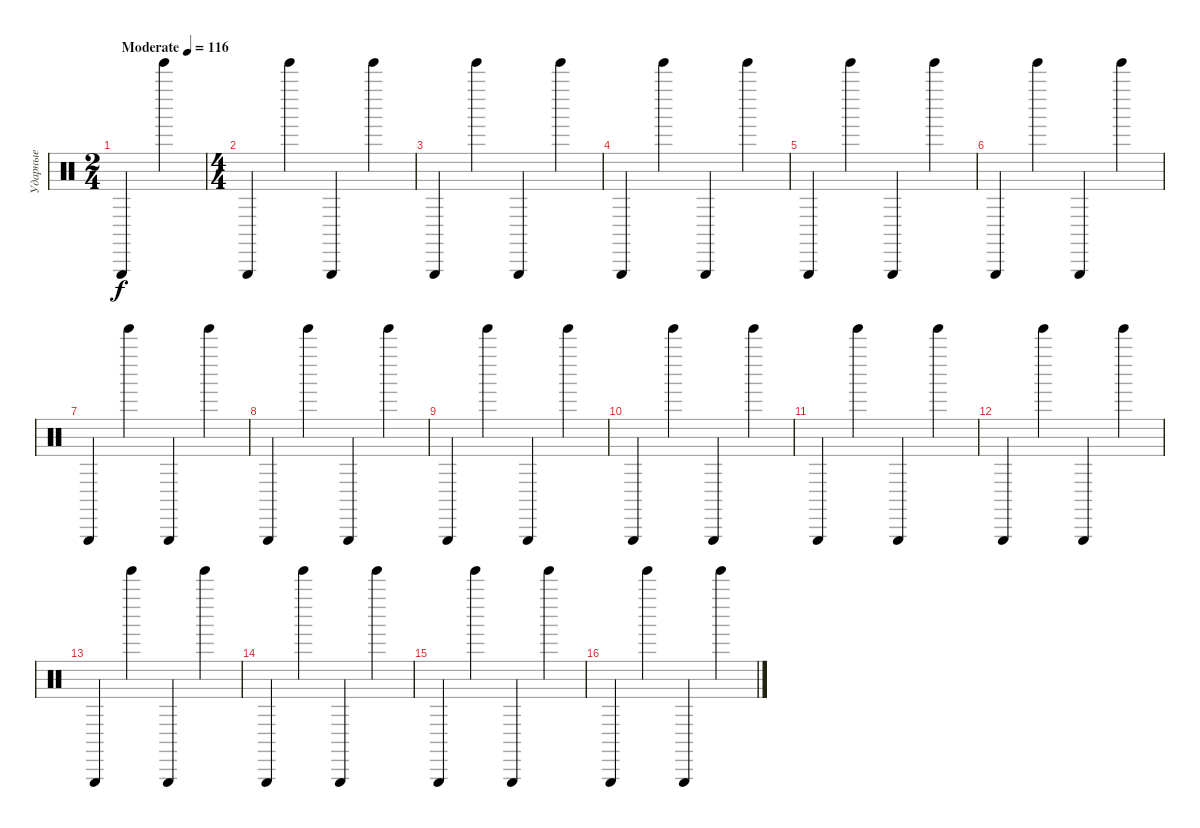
\track ("Ударные" "Ударные") {instrument percussion}
\staff {score}
\articulation defaults
\ts (2 4)
\tempo (116 "Moderate")
\clef neutral
\ks c "Triangle (hit)".4{dy f} "Tinkle Bell (hit)".4
|
\ts (4 4)
"Triangle (hit)".4 "Tinkle Bell (hit)".4 "Triangle (hit)".4 "Tinkle Bell (hit)".4 |
"Triangle (hit)".4 "Tinkle Bell (hit)".4 "Triangle (hit)".4 "Tinkle Bell (hit)".4 |
"Triangle (hit)".4 "Tinkle Bell (hit)".4 "Triangle (hit)".4 "Tinkle Bell (hit)".4 |
"Triangle (hit)".4 "Tinkle Bell (hit)".4 "Triangle (hit)".4 "Tinkle Bell (hit)".4 |
"Triangle (hit)".4 "Tinkle Bell (hit)".4 "Triangle (hit)".4 "Tinkle Bell (hit)".4 |
"Triangle (hit)".4 "Tinkle Bell (hit)".4 "Triangle (hit)".4 "Tinkle Bell (hit)".4 |
"Triangle (hit)".4 "Tinkle Bell (hit)".4 "Triangle (hit)".4 "Tinkle Bell (hit)".4 |
"Triangle (hit)".4 "Tinkle Bell (hit)".4 "Triangle (hit)".4 "Tinkle Bell (hit)".4 |
"Triangle (hit)".4 "Tinkle Bell (hit)".4 "Triangle (hit)".4 "Tinkle Bell (hit)".4 |
"Triangle (hit)".4 "Tinkle Bell (hit)".4 "Triangle (hit)".4 "Tinkle Bell (hit)".4 |
"Triangle (hit)".4 "Tinkle Bell (hit)".4 "Triangle (hit)".4 "Tinkle Bell (hit)".4 |
"Triangle (hit)".4 "Tinkle Bell (hit)".4 "Triangle (hit)".4 "Tinkle Bell (hit)".4 |
"Triangle (hit)".4 "Tinkle Bell (hit)".4 "Triangle (hit)".4 "Tinkle Bell (hit)".4 |
"Triangle (hit)".4 "Tinkle Bell (hit)".4 "Triangle (hit)".4 "Tinkle Bell (hit)".4 |
"Triangle (hit)".4 "Tinkle Bell (hit)".4 "Triangle (hit)".4 "Tinkle Bell (hit)".4
